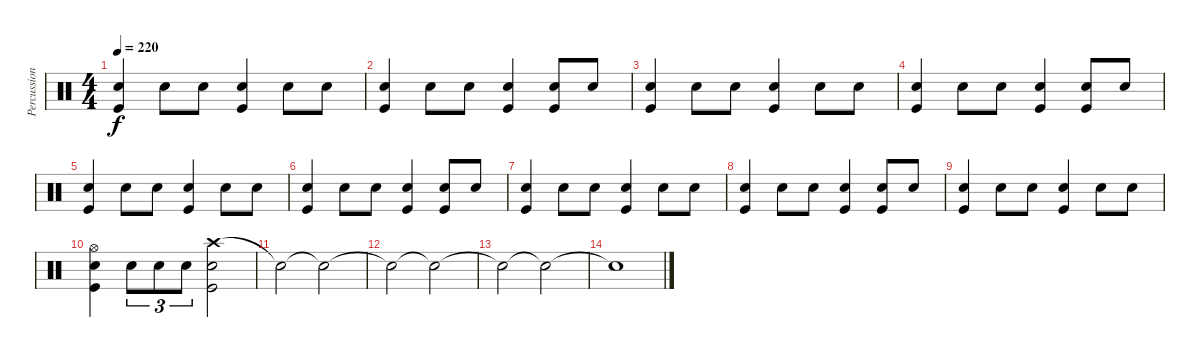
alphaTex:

\track ("Percussion" "Percussion") {instrument percussion}
\staff {score}
\articulation defaults
\ts (4 4)
\tempo 220
\clef neutral
\ks c
("Snare (hit) 2" "Kick (hit)").4{dy f} "Snare (hit) 2".8 "Snare (hit) 2".8 ("Snare (hit) 2" "Kick (hit)").4 "Snare (hit) 2".8 "Snare (hit) 2".8 |
("Snare (hit) 2" "Kick (hit)").4 "Snare (hit) 2".8 "Snare (hit) 2".8 ("Snare (hit) 2" "Kick (hit)").4 ("Snare (hit) 2" "Kick (hit)").8 "Snare (hit) 2".8 |
("Snare (hit) 2" "Kick (hit)").4 "Snare (hit) 2".8 "Snare (hit) 2".8 ("Snare (hit) 2" "Kick (hit)").4 "Snare (hit) 2".8 "Snare (hit) 2".8 |
("Snare (hit) 2" "Kick (hit)").4 "Snare (hit) 2".8 "Snare (hit) 2".8 ("Snare (hit) 2" "Kick (hit)").4 ("Snare (hit) 2" "Kick (hit)").8 "Snare (hit) 2".8 |
("Snare (hit) 2" "Kick (hit)").4 "Snare (hit) 2".8 "Snare (hit) 2".8 ("Snare (hit) 2" "Kick (hit)").4 "Snare (hit) 2".8 "Snare (hit) 2".8 |
("Snare (hit) 2" "Kick (hit)").4 "Snare (hit) 2".8 "Snare (hit) 2".8 ("Snare (hit) 2" "Kick (hit)").4 ("Snare (hit) 2" "Kick (hit)").8 "Snare (hit) 2".8 |
("Snare (hit) 2" "Kick (hit)").4 "Snare (hit) 2".8 "Snare (hit) 2".8 ("Snare (hit) 2" "Kick (hit)").4 "Snare (hit) 2".8 "Snare (hit) 2".8 |
("Snare (hit) 2" "Kick (hit)").4 "Snare (hit) 2".8 "Snare (hit) 2".8 ("Snare (hit) 2" "Kick (hit)").4 ("Snare (hit) 2" "Kick (hit)").8 "Snare (hit) 2".8 |
("Snare (hit) 2" "Kick (hit)").4 "Snare (hit) 2".8 "Snare (hit) 2".8 ("Snare (hit) 2" "Kick (hit)").4 "Snare (hit) 2".8 "Snare (hit) 2".8 |
("Hi-Hat (open)" "Snare (hit) 2" "Kick (hit)").4 "Snare (hit) 2".8{tu (3 2)} "Snare (hit) 2".8{tu (3 2)} "Snare (hit) 2".8{tu (3 2)} ("Crash high (hit)" "Snare (hit) 2" "Kick (hit)").2 |
"Snare (hit)"{t}.2 "Snare (hit)"{t}.2 |
"Snare (hit)"{t}.2 "Snare (hit)"{t}.2 |
"Snare (hit)"{t}.2 "Snare (hit)"{t}.2 |
"Snare (hit)"{t}.1
